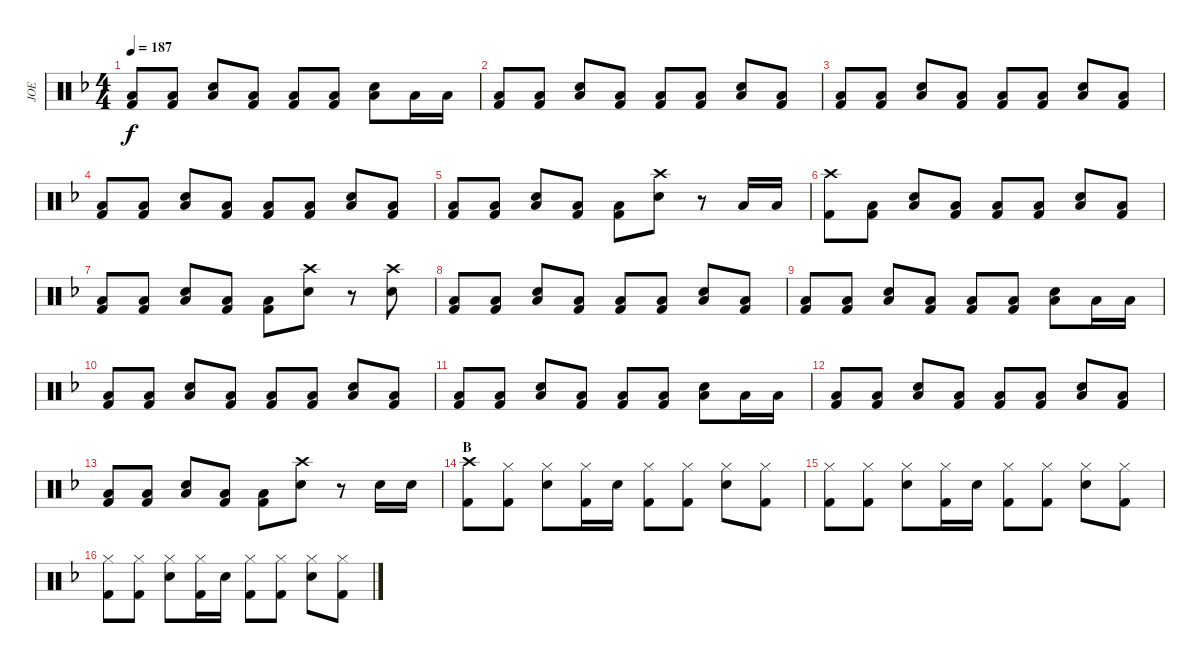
\track ("JOE" "JOE") {instrument percussion}
\staff {score}
\articulation defaults
\ts (4 4)
\tempo 187
\clef neutral
\ks dminor
("Low Floor Tom (hit)" "Kick (hit) 2").8{dy f} ("Low Floor Tom (hit)" "Kick (hit) 2").8 ("Low Floor Tom (hit)" "Snare (hit) 2").8 ("Low Floor Tom (hit)" "Kick (hit) 2").8 ("Low Floor Tom (hit)" "Kick (hit) 2").8 ("Low Floor Tom (hit)" "Kick (hit) 2").8 ("Low Floor Tom (hit)" "Snare (hit) 2").8 "Low Floor Tom (hit)".16 "Low Floor Tom (hit)".16 |
("Low Floor Tom (hit)" "Kick (hit) 2").8 ("Low Floor Tom (hit)" "Kick (hit) 2").8 ("Low Floor Tom (hit)" "Snare (hit) 2").8 ("Low Floor Tom (hit)" "Kick (hit) 2").8 ("Low Floor Tom (hit)" "Kick (hit) 2").8 ("Low Floor Tom (hit)" "Kick (hit) 2").8 ("Low Floor Tom (hit)" "Snare (hit) 2").8 ("Low Floor Tom (hit)" "Kick (hit) 2").8 |
("Low Floor Tom (hit)" "Kick (hit) 2").8 ("Low Floor Tom (hit)" "Kick (hit) 2").8 ("Low Floor Tom (hit)" "Snare (hit) 2").8 ("Low Floor Tom (hit)" "Kick (hit) 2").8 ("Low Floor Tom (hit)" "Kick (hit) 2").8 ("Low Floor Tom (hit)" "Kick (hit) 2").8 ("Low Floor Tom (hit)" "Snare (hit) 2").8 ("Low Floor Tom (hit)" "Kick (hit) 2").8 |
("Low Floor Tom (hit)" "Kick (hit) 2").8 ("Low Floor Tom (hit)" "Kick (hit) 2").8 ("Low Floor Tom (hit)" "Snare (hit) 2").8 ("Low Floor Tom (hit)" "Kick (hit) 2").8 ("Low Floor Tom (hit)" "Kick (hit) 2").8 ("Low Floor Tom (hit)" "Kick (hit) 2").8 ("Low Floor Tom (hit)" "Snare (hit) 2").8 ("Low Floor Tom (hit)" "Kick (hit) 2").8 |
("Low Floor Tom (hit)" "Kick (hit) 2").8 ("Low Floor Tom (hit)" "Kick (hit) 2").8 ("Low Floor Tom (hit)" "Snare (hit) 2").8 ("Low Floor Tom (hit)" "Kick (hit) 2").8 ("Low Floor Tom (hit)" "Kick (hit) 2").8 ("Crash high (hit)" "Snare (hit) 2").8 r.8 "Low Floor Tom (hit)".16 "Low Floor Tom (hit)".16 |
("Crash high (hit)" "Kick (hit) 2").8 ("Low Floor Tom (hit)" "Kick (hit) 2").8 ("Low Floor Tom (hit)" "Snare (hit) 2").8 ("Low Floor Tom (hit)" "Kick (hit) 2").8 ("Low Floor Tom (hit)" "Kick (hit) 2").8 ("Low Floor Tom (hit)" "Kick (hit) 2").8 ("Low Floor Tom (hit)" "Snare (hit) 2").8 ("Low Floor Tom (hit)" "Kick (hit) 2").8 |
("Low Floor Tom (hit)" "Kick (hit) 2").8 ("Low Floor Tom (hit)" "Kick (hit) 2").8 ("Low Floor Tom (hit)" "Snare (hit) 2").8 ("Low Floor Tom (hit)" "Kick (hit) 2").8 ("Low Floor Tom (hit)" "Kick (hit) 2").8 ("Crash high (hit)" "Snare (hit) 2").8 r.8 ("Crash high (hit)" "Snare (hit) 2").8 |
("Low Floor Tom (hit)" "Kick (hit) 2").8 ("Low Floor Tom (hit)" "Kick (hit) 2").8 ("Low Floor Tom (hit)" "Snare (hit) 2").8 ("Low Floor Tom (hit)" "Kick (hit) 2").8 ("Low Floor Tom (hit)" "Kick (hit) 2").8 ("Low Floor Tom (hit)" "Kick (hit) 2").8 ("Low Floor Tom (hit)" "Snare (hit) 2").8 ("Low Floor Tom (hit)" "Kick (hit) 2").8 |
("Low Floor Tom (hit)" "Kick (hit) 2").8 ("Low Floor Tom (hit)" "Kick (hit) 2").8 ("Low Floor Tom (hit)" "Snare (hit) 2").8 ("Low Floor Tom (hit)" "Kick (hit) 2").8 ("Low Floor Tom (hit)" "Kick (hit) 2").8 ("Low Floor Tom (hit)" "Kick (hit) 2").8 ("Low Floor Tom (hit)" "Snare (hit) 2").8 "Low Floor Tom (hit)".16 "Low Floor Tom (hit)".16 |
("Low Floor Tom (hit)" "Kick (hit) 2").8 ("Low Floor Tom (hit)" "Kick (hit) 2").8 ("Low Floor Tom (hit)" "Snare (hit) 2").8 ("Low Floor Tom (hit)" "Kick (hit) 2").8 ("Low Floor Tom (hit)" "Kick (hit) 2").8 ("Low Floor Tom (hit)" "Kick (hit) 2").8 ("Low Floor Tom (hit)" "Snare (hit) 2").8 ("Low Floor Tom (hit)" "Kick (hit) 2").8 |
("Low Floor Tom (hit)" "Kick (hit) 2").8 ("Low Floor Tom (hit)" "Kick (hit) 2").8 ("Low Floor Tom (hit)" "Snare (hit) 2").8 ("Low Floor Tom (hit)" "Kick (hit) 2").8 ("Low Floor Tom (hit)" "Kick (hit) 2").8 ("Low Floor Tom (hit)" "Kick (hit) 2").8 ("Low Floor Tom (hit)" "Snare (hit) 2").8 "Low Floor Tom (hit)".16 "Low Floor Tom (hit)".16 |
("Low Floor Tom (hit)" "Kick (hit) 2").8 ("Low Floor Tom (hit)" "Kick (hit) 2").8 ("Low Floor Tom (hit)" "Snare (hit) 2").8 ("Low Floor Tom (hit)" "Kick (hit) 2").8 ("Low Floor Tom (hit)" "Kick (hit) 2").8 ("Low Floor Tom (hit)" "Kick (hit) 2").8 ("Low Floor Tom (hit)" "Snare (hit) 2").8 ("Low Floor Tom (hit)" "Kick (hit) 2").8 |
("Low Floor Tom (hit)" "Kick (hit) 2").8 ("Low Floor Tom (hit)" "Kick (hit) 2").8 ("Low Floor Tom (hit)" "Snare (hit) 2").8 ("Low Floor Tom (hit)" "Kick (hit) 2").8 ("Low Floor Tom (hit)" "Kick (hit) 2").8 ("Crash high (hit)" "Snare (hit) 2").8 r.8 "Snare (hit) 2".16 "Snare (hit) 2".16 |
\section ("" "B")
("Crash high (hit)" "Kick (hit) 2").8 ("Hi-Hat (closed)" "Kick (hit) 2").8 ("Hi-Hat (closed)" "Snare (hit) 2").8 ("Hi-Hat (closed)" "Kick (hit) 2").16 "Snare (hit) 2".16 ("Hi-Hat (closed)" "Kick (hit) 2").8 ("Hi-Hat (closed)" "Kick (hit) 2").8 ("Hi-Hat (closed)" "Snare (hit) 2").8 ("Hi-Hat (closed)" "Kick (hit) 2").8 |
("Hi-Hat (closed)" "Kick (hit) 2").8 ("Hi-Hat (closed)" "Kick (hit) 2").8 ("Hi-Hat (closed)" "Snare (hit) 2").8 ("Hi-Hat (closed)" "Kick (hit) 2").16 "Snare (hit) 2".16 ("Hi-Hat (closed)" "Kick (hit) 2").8 ("Hi-Hat (closed)" "Kick (hit) 2").8 ("Hi-Hat (closed)" "Snare (hit) 2").8 ("Hi-Hat (closed)" "Kick (hit) 2").8 |
("Hi-Hat (closed)" "Kick (hit) 2").8 ("Hi-Hat (closed)" "Kick (hit) 2").8 ("Hi-Hat (closed)" "Snare (hit) 2").8 ("Hi-Hat (closed)" "Kick (hit) 2").16 "Snare (hit) 2".16 ("Hi-Hat (closed)" "Kick (hit) 2").8 ("Hi-Hat (closed)" "Kick (hit) 2").8 ("Hi-Hat (closed)" "Snare (hit) 2").8 ("Hi-Hat (closed)" "Kick (hit) 2").8
